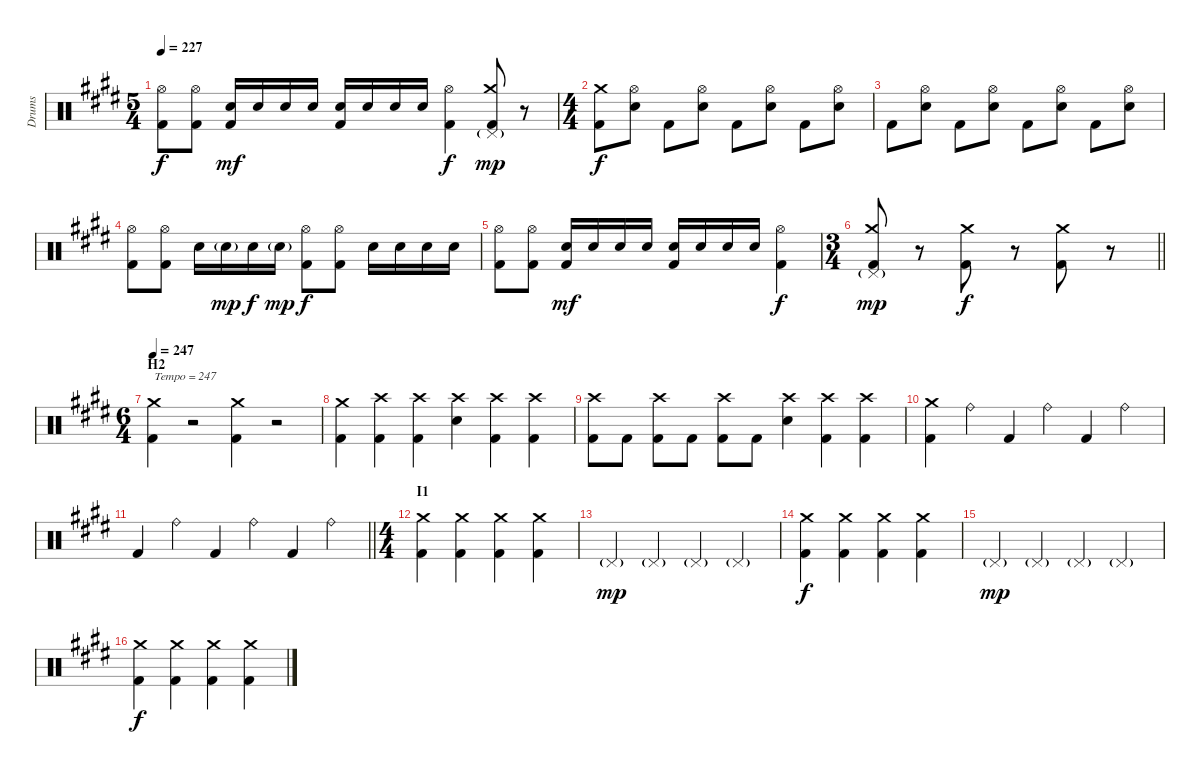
\track ("Drums" "Drums") {instrument percussion}
\staff {score}
\articulation defaults
\ts (5 4)
\tempo 227
\clef neutral
\ks c#minor
("Hi-Hat (open)" "Kick (hit) 2").8{dy f} ("Hi-Hat (open)" "Kick (hit) 2").8 ("Snare (hit) 2" "Kick (hit) 2").16{dy mf} "Snare (hit) 2".16 "Snare (hit) 2".16 "Snare (hit) 2".16 ("Snare (hit) 2" "Kick (hit) 2").16 "Snare (hit) 2".16 "Snare (hit) 2".16 "Snare (hit) 2".16 ("Hi-Hat (open)" "Kick (hit) 2").4{dy f} ("Crash medium (hit)" "Pedal Hi-Hat (hit)"{g} "Kick (hit) 2").8{dy mp} r.8{volume 0} |
\ts (4 4)
("Crash medium (hit)" "Kick (hit) 2").8{dy f volume 16} ("Hi-Hat (open)" "Snare (hit) 2").8 "Kick (hit) 2".8 ("Hi-Hat (open)" "Snare (hit) 2").8 "Kick (hit) 2".8 ("Hi-Hat (open)" "Snare (hit) 2").8 "Kick (hit) 2".8 ("Hi-Hat (open)" "Snare (hit) 2").8 |
"Kick (hit) 2".8 ("Hi-Hat (open)" "Snare (hit) 2").8 "Kick (hit) 2".8 ("Hi-Hat (open)" "Snare (hit) 2").8 "Kick (hit) 2".8 ("Hi-Hat (open)" "Snare (hit) 2").8 "Kick (hit) 2".8 ("Hi-Hat (open)" "Snare (hit) 2").8 |
("Hi-Hat (open)" "Kick (hit) 2").8 ("Hi-Hat (open)" "Kick (hit) 2").8 "Snare (hit) 2".16 "Snare (hit) 2"{g}.16{dy mp} "Snare (hit) 2".16{dy f} "Snare (hit) 2"{g}.16{dy mp} ("Hi-Hat (open)" "Kick (hit) 2").8{dy f} ("Hi-Hat (open)" "Kick (hit) 2").8 "Snare (hit) 2".16 "Snare (hit) 2".16 "Snare (hit) 2".16 "Snare (hit) 2".16 |
("Hi-Hat (open)" "Kick (hit) 2").8 ("Hi-Hat (open)" "Kick (hit) 2").8 ("Snare (hit) 2" "Kick (hit) 2").16{dy mf} "Snare (hit) 2".16 "Snare (hit) 2".16 "Snare (hit) 2".16 ("Snare (hit) 2" "Kick (hit) 2").16 "Snare (hit) 2".16 "Snare (hit) 2".16 "Snare (hit) 2".16 ("Hi-Hat (open)" "Kick (hit) 2").4{dy f} |
\ts (3 4)
\barLineRight lightlight
("Crash medium (hit)" "Pedal Hi-Hat (hit)"{g} "Kick (hit) 2").8{dy mp} r.8{volume 0} ("Crash medium (hit)" "Kick (hit) 2").8{dy f volume 16} r.8{volume 0} ("Crash medium (hit)" "Kick (hit) 2").8{volume 16} r.8{volume 0} |
\ts (6 4)
\section ("" "H2")
\tempo 247
("Crash medium (hit)" "Kick (hit) 2").4{txt "Tempo = 247" volume 16} r.2{volume 0} ("Crash medium (hit)" "Kick (hit) 2").4{volume 16} r.2{volume 0} |
("Crash medium (hit)" "Kick (hit) 2").4{volume 16} ("Crash high (hit)" "Kick (hit) 2").4 ("Crash high (hit)" "Kick (hit) 2").4 ("Crash high (hit)" "Snare (hit) 2").4 ("Crash high (hit)" "Kick (hit) 2").4 ("Crash high (hit)" "Kick (hit) 2").4 |
("Crash high (hit)" "Kick (hit) 2").8 "Kick (hit) 2".8 ("Crash high (hit)" "Kick (hit) 2").8 "Kick (hit) 2".8 ("Crash high (hit)" "Kick (hit) 2").8 "Kick (hit) 2".8 ("Crash high (hit)" "Snare (hit) 2").4 ("Crash high (hit)" "Kick (hit) 2").4 ("Crash high (hit)" "Kick (hit) 2").4 |
("Crash medium (hit)" "Kick (hit) 2").4 "Ride (bell)".4 "Kick (hit) 2".4 "Ride (bell)".4 "Kick (hit) 2".4 "Ride (bell)".4 |
\barLineRight lightlight "Kick (hit) 2".4 "Ride (bell)".4 "Kick (hit) 2".4 "Ride (bell)".4 "Kick (hit) 2".4 "Ride (bell)".4
|
\ts (4 4)
\section ("" "I1")
("Crash medium (hit)" "Kick (hit) 2").4 ("Crash medium (hit)" "Kick (hit) 2").4 ("Crash medium (hit)" "Kick (hit) 2").4 ("Crash medium (hit)" "Kick (hit) 2").4 |
"Pedal Hi-Hat (hit)"{g}.4{dy mp volume 0} "Pedal Hi-Hat (hit)"{g}.4 "Pedal Hi-Hat (hit)"{g}.4 "Pedal Hi-Hat (hit)"{g}.4 |
("Crash medium (hit)" "Kick (hit) 2").4{dy f volume 16} ("Crash medium (hit)" "Kick (hit) 2").4 ("Crash medium (hit)" "Kick (hit) 2").4 ("Crash medium (hit)" "Kick (hit) 2").4 |
"Pedal Hi-Hat (hit)"{g}.4{dy mp volume 0} "Pedal Hi-Hat (hit)"{g}.4 "Pedal Hi-Hat (hit)"{g}.4 "Pedal Hi-Hat (hit)"{g}.4 |
("Crash medium (hit)" "Kick (hit) 2").4{dy f volume 16} ("Crash medium (hit)" "Kick (hit) 2").4 ("Crash medium (hit)" "Kick (hit) 2").4 ("Crash medium (hit)" "Kick (hit) 2").4
